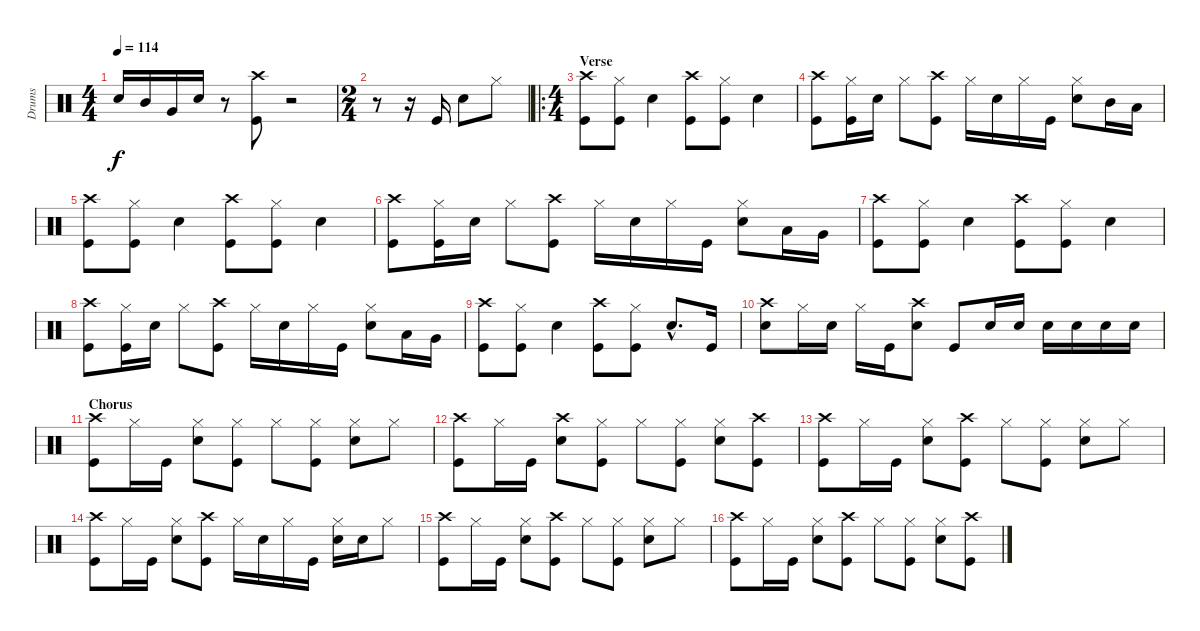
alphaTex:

\track ("Drums" "Drums") {instrument percussion}
\staff {score}
\articulation defaults
\ts (4 4)
\tempo 114
\clef neutral
\ks c "Snare (hit) 2".16{dy f} "Mid Tom (hit)".16 "Very Low Tom (hit)".16 "Snare (hit) 2".16
r.8 ("Crash high (hit)" "Kick (hit)").8 r.2 |
\ts (2 4)
r.8 r.16 "Kick (hit)".16 "Snare (hit) 2".8 "Hi-Hat (closed)".8 |
\ro
\ts (4 4)
\section ("" "Verse")
("Crash high (hit)" "Kick (hit)").8 ("Hi-Hat (closed)" "Kick (hit)").8 "Snare (hit) 2".4 ("Crash high (hit)" "Kick (hit)").8 ("Hi-Hat (closed)" "Kick (hit)").8 "Snare (hit) 2".4 |
("Crash high (hit)" "Kick (hit)").8 ("Hi-Hat (closed)" "Kick (hit)").16 "Snare (hit) 2".16 "Hi-Hat (closed)".8 ("Crash high (hit)" "Kick (hit)").8 "Hi-Hat (closed)".16 "Snare (hit) 2".16 "Hi-Hat (closed)".16 "Kick (hit)".16 ("Hi-Hat (closed)" "Snare (hit) 2").8 "Mid Tom (hit)".16 "Low Tom (hit)".16 |
("Crash high (hit)" "Kick (hit)").8 ("Hi-Hat (closed)" "Kick (hit)").8 "Snare (hit) 2".4 ("Crash high (hit)" "Kick (hit)").8 ("Hi-Hat (closed)" "Kick (hit)").8 "Snare (hit) 2".4 |
("Crash high (hit)" "Kick (hit)").8 ("Hi-Hat (closed)" "Kick (hit)").16 "Snare (hit) 2".16 "Hi-Hat (closed)".8 ("Crash high (hit)" "Kick (hit)").8 "Hi-Hat (closed)".16 "Snare (hit) 2".16 "Hi-Hat (closed)".16 "Kick (hit)".16 ("Hi-Hat (closed)" "Snare (hit) 2").8 "Low Tom (hit)".16 "Very Low Tom (hit)".16 |
("Crash high (hit)" "Kick (hit)").8 ("Hi-Hat (closed)" "Kick (hit)").8 "Snare (hit) 2".4 ("Crash high (hit)" "Kick (hit)").8 ("Hi-Hat (closed)" "Kick (hit)").8 "Snare (hit) 2".4 |
("Crash high (hit)" "Kick (hit)").8 ("Hi-Hat (closed)" "Kick (hit)").16 "Snare (hit) 2".16 "Hi-Hat (closed)".8 ("Crash high (hit)" "Kick (hit)").8 "Hi-Hat (closed)".16 "Snare (hit) 2".16 "Hi-Hat (closed)".16 "Kick (hit)".16 ("Hi-Hat (closed)" "Snare (hit) 2").8 "Low Tom (hit)".16 "Very Low Tom (hit)".16 |
("Crash high (hit)" "Kick (hit)").8 ("Hi-Hat (closed)" "Kick (hit)").8 "Snare (hit) 2".4 ("Crash high (hit)" "Kick (hit)").8 ("Hi-Hat (closed)" "Kick (hit)").8 "Snare (hit) 2"{hac}.8{d} "Kick (hit)".16 |
("Crash high (hit)" "Snare (hit) 2").8 "Hi-Hat (closed)".16 "Snare (hit) 2".16 "Hi-Hat (closed)".16 "Kick (hit)".16 ("Crash high (hit)" "Snare (hit) 2").8 "Kick (hit)".8 "Snare (hit) 2".16 "Snare (hit) 2".16 "Snare (hit) 2".16 "Snare (hit) 2".16 "Snare (hit) 2".16 "Snare (hit) 2".16 |
\section ("" "Chorus")
("Crash high (hit)" "Kick (hit)").8 "Hi-Hat (closed)".16 "Kick (hit)".16 ("Hi-Hat (closed)" "Snare (hit) 2").8 ("Hi-Hat (closed)" "Kick (hit)").8 "Hi-Hat (closed)".8 ("Hi-Hat (closed)" "Kick (hit)").8 ("Hi-Hat (closed)" "Snare (hit) 2").8 "Hi-Hat (closed)".8 |
("Crash high (hit)" "Kick (hit)").8 "Hi-Hat (closed)".16 "Kick (hit)".16 ("Crash high (hit)" "Snare (hit) 2").8 ("Hi-Hat (closed)" "Kick (hit)").8 "Hi-Hat (closed)".8 ("Hi-Hat (closed)" "Kick (hit)").8 ("Hi-Hat (closed)" "Snare (hit) 2").8 ("Crash high (hit)" "Kick (hit)").8 |
("Crash high (hit)" "Kick (hit)").8 "Hi-Hat (closed)".16 "Kick (hit)".16 ("Hi-Hat (closed)" "Snare (hit) 2").8 ("Crash high (hit)" "Kick (hit)").8 "Hi-Hat (closed)".8 ("Hi-Hat (closed)" "Kick (hit)").8 ("Hi-Hat (closed)" "Snare (hit) 2").8 "Hi-Hat (closed)".8 |
("Crash high (hit)" "Kick (hit)").8 "Hi-Hat (closed)".16 "Kick (hit)".16 ("Hi-Hat (closed)" "Snare (hit) 2").8 ("Crash high (hit)" "Kick (hit)").8 "Hi-Hat (closed)".16 "Snare (hit) 2".16 "Hi-Hat (closed)".16 "Kick (hit)".16 ("Hi-Hat (closed)" "Snare (hit) 2").16 "Snare (hit) 2".16 "Hi-Hat (closed)".8 |
("Crash high (hit)" "Kick (hit)").8 "Hi-Hat (closed)".16 "Kick (hit)".16 ("Hi-Hat (closed)" "Snare (hit) 2").8 ("Crash high (hit)" "Kick (hit)").8 "Hi-Hat (closed)".8 ("Hi-Hat (closed)" "Kick (hit)").8 ("Hi-Hat (closed)" "Snare (hit) 2").8 "Hi-Hat (closed)".8 |
("Crash high (hit)" "Kick (hit)").8 "Hi-Hat (closed)".16 "Kick (hit)".16 ("Hi-Hat (closed)" "Snare (hit) 2").8 ("Crash high (hit)" "Kick (hit)").8 "Hi-Hat (closed)".8 ("Hi-Hat (closed)" "Kick (hit)").8 ("Hi-Hat (closed)" "Snare (hit) 2").8 ("Crash high (hit)" "Kick (hit)").8
